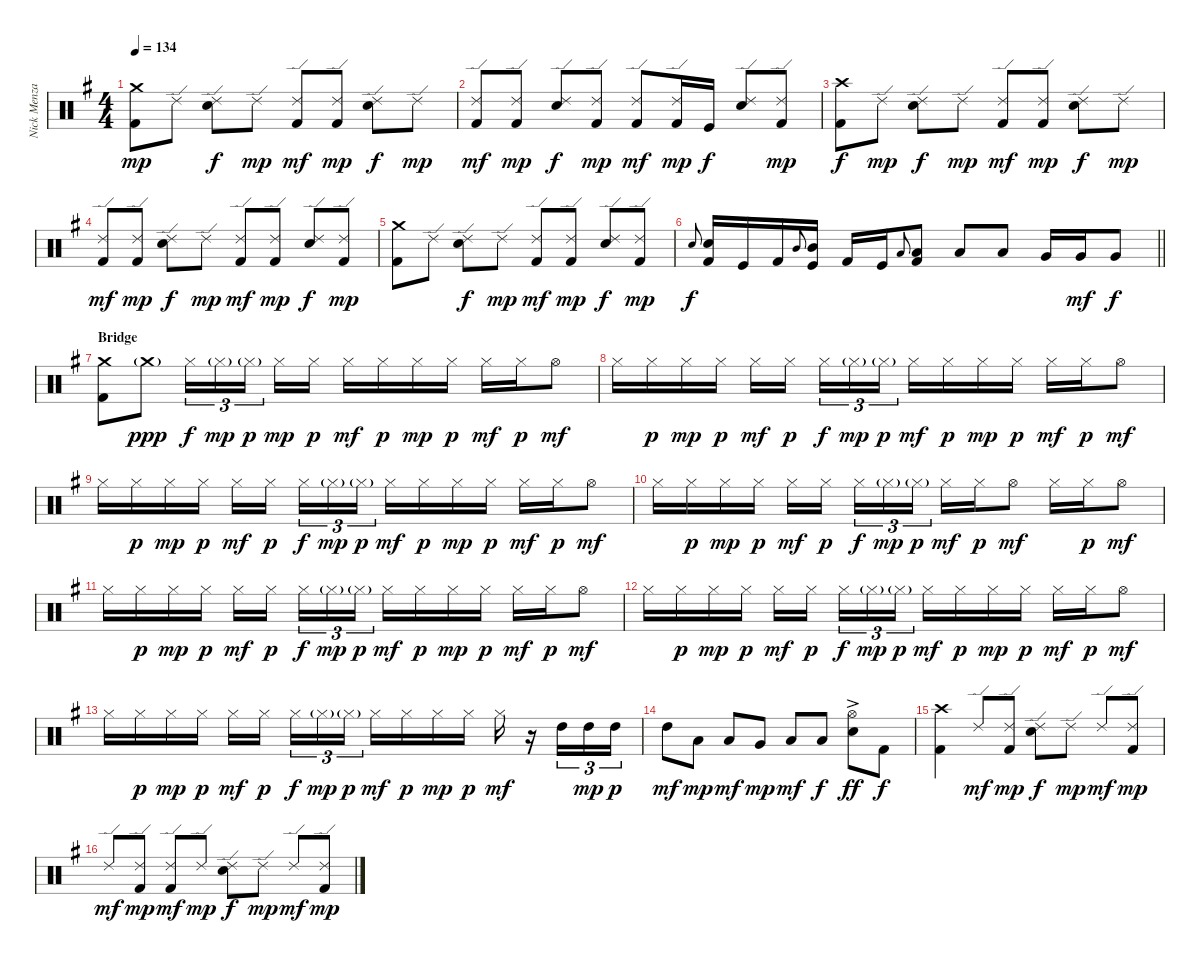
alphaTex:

\track ("Nick Menza" "Nick Menza") {instrument percussion}
\staff {score}
\articulation defaults
\ts (4 4)
\tempo 134
\clef neutral
\ks eminor
("Crash medium (hit)" "Kick (hit) 2").8{dy mp} "Ride (edge) 2".8 ("Ride (edge) 2" "Snare (hit) 2").8{dy f} "Ride (edge) 2".8{dy mp} ("Ride (edge) 2" "Kick (hit) 2").8{dy mf} ("Ride (edge) 2" "Kick (hit) 2").8{dy mp} ("Ride (edge) 2" "Snare (hit) 2").8{dy f} "Ride (edge) 2".8{dy mp} |
("Ride (edge) 2" "Kick (hit) 2").8{dy mf} ("Ride (edge) 2" "Kick (hit) 2").8{dy mp} ("Ride (edge) 2" "Snare (hit) 2").8{dy f} ("Ride (edge) 2" "Kick (hit) 2").8{dy mp} ("Ride (edge) 2" "Kick (hit) 2").8{dy mf} ("Ride (edge) 2" "Kick (hit) 2").16{dy mp} "Kick (hit)".16{dy f} ("Ride (edge) 2" "Snare (hit) 2").8 ("Ride (edge) 2" "Kick (hit) 2").8{dy mp} |
("Crash high (hit)" "Kick (hit) 2").8{dy f} "Ride (edge) 2".8{dy mp} ("Ride (edge) 2" "Snare (hit) 2").8{dy f} "Ride (edge) 2".8{dy mp} ("Ride (edge) 2" "Kick (hit) 2").8{dy mf} ("Ride (edge) 2" "Kick (hit) 2").8{dy mp} ("Ride (edge) 2" "Snare (hit) 2").8{dy f} "Ride (edge) 2".8{dy mp} |
("Ride (edge) 2" "Kick (hit) 2").8{dy mf} ("Ride (edge) 2" "Kick (hit) 2").8{dy mp} ("Ride (edge) 2" "Snare (hit) 2").8{dy f} "Ride (edge) 2".8{dy mp} ("Ride (edge) 2" "Kick (hit) 2").8{dy mf} ("Ride (edge) 2" "Kick (hit) 2").8{dy mp} ("Ride (edge) 2" "Snare (hit) 2").8{dy f} ("Ride (edge) 2" "Kick (hit) 2").8{dy mp} |
("Crash medium (hit)" "Kick (hit) 2").8 "Ride (edge) 2".8 ("Ride (edge) 2" "Snare (hit) 2").8{dy f} "Ride (edge) 2".8{dy mp} ("Ride (edge) 2" "Kick (hit) 2").8{dy mf} ("Ride (edge) 2" "Kick (hit) 2").8{dy mp} ("Ride (edge) 2" "Snare (hit) 2").8{dy f} ("Ride (edge) 2" "Kick (hit) 2").8{dy mp} |
\barLineRight lightlight "Snare (hit) 2".8{gr onbeat dy f}
("Snare (hit) 2" "Kick (hit) 2").16 "Kick (hit)".16 "Kick (hit) 2".16 "Mid Tom (hit)".8{gr onbeat} ("Mid Tom (hit)" "Kick (hit)").16 "Kick (hit) 2".16 "Kick (hit)".16 "Low Tom (hit)".8{gr onbeat} ("Low Tom (hit)" "Kick (hit) 2").8 "Low Tom (hit)".8 "Low Tom (hit)".8 "Very Low Tom (hit)".16 "Very Low Tom (hit)".16{dy mf} "Very Low Tom (hit)".8{dy f} |
\section ("" "Bridge")
("Crash medium (hit)" "Kick (hit) 2").8 "Crash medium (hit)"{g}.8{dy ppp} "Hi-Hat (closed)".16{tu (3 2) dy f} "Hi-Hat (closed)"{g}.16{tu (3 2) dy mp} "Hi-Hat (closed)"{g}.16{tu (3 2) dy p beam splitsecondary} "Hi-Hat (closed)".16{dy mp} "Hi-Hat (closed)".16{dy p} "Hi-Hat (closed)".16{dy mf} "Hi-Hat (closed)".16{dy p} "Hi-Hat (closed)".16{dy mp} "Hi-Hat (closed)".16{dy p} "Hi-Hat (closed)".16{dy mf} "Hi-Hat (closed)".16{dy p} "Hi-Hat (open)".8{dy mf} |
"Hi-Hat (closed)".16 "Hi-Hat (closed)".16{dy p} "Hi-Hat (closed)".16{dy mp} "Hi-Hat (closed)".16{dy p} "Hi-Hat (closed)".16{dy mf} "Hi-Hat (closed)".16{dy p beam splitsecondary} "Hi-Hat (closed)".16{tu (3 2) dy f} "Hi-Hat (closed)"{g}.16{tu (3 2) dy mp} "Hi-Hat (closed)"{g}.16{tu (3 2) dy p} "Hi-Hat (closed)".16{dy mf} "Hi-Hat (closed)".16{dy p} "Hi-Hat (closed)".16{dy mp} "Hi-Hat (closed)".16{dy p} "Hi-Hat (closed)".16{dy mf} "Hi-Hat (closed)".16{dy p} "Hi-Hat (open)".8{dy mf} |
"Hi-Hat (closed)".16 "Hi-Hat (closed)".16{dy p} "Hi-Hat (closed)".16{dy mp} "Hi-Hat (closed)".16{dy p} "Hi-Hat (closed)".16{dy mf} "Hi-Hat (closed)".16{dy p beam splitsecondary} "Hi-Hat (closed)".16{tu (3 2) dy f} "Hi-Hat (closed)"{g}.16{tu (3 2) dy mp} "Hi-Hat (closed)"{g}.16{tu (3 2) dy p} "Hi-Hat (closed)".16{dy mf} "Hi-Hat (closed)".16{dy p} "Hi-Hat (closed)".16{dy mp} "Hi-Hat (closed)".16{dy p} "Hi-Hat (closed)".16{dy mf} "Hi-Hat (closed)".16{dy p} "Hi-Hat (open)".8{dy mf} |
"Hi-Hat (closed)".16 "Hi-Hat (closed)".16{dy p} "Hi-Hat (closed)".16{dy mp} "Hi-Hat (closed)".16{dy p} "Hi-Hat (closed)".16{dy mf} "Hi-Hat (closed)".16{dy p beam splitsecondary} "Hi-Hat (closed)".16{tu (3 2) dy f} "Hi-Hat (closed)"{g}.16{tu (3 2) dy mp} "Hi-Hat (closed)"{g}.16{tu (3 2) dy p} "Hi-Hat (closed)".16{dy mf} "Hi-Hat (closed)".16{dy p} "Hi-Hat (open)".8{dy mf} "Hi-Hat (closed)".16 "Hi-Hat (closed)".16{dy p} "Hi-Hat (open)".8{dy mf} |
"Hi-Hat (closed)".16 "Hi-Hat (closed)".16{dy p} "Hi-Hat (closed)".16{dy mp} "Hi-Hat (closed)".16{dy p} "Hi-Hat (closed)".16{dy mf} "Hi-Hat (closed)".16{dy p beam splitsecondary} "Hi-Hat (closed)".16{tu (3 2) dy f} "Hi-Hat (closed)"{g}.16{tu (3 2) dy mp} "Hi-Hat (closed)"{g}.16{tu (3 2) dy p} "Hi-Hat (closed)".16{dy mf} "Hi-Hat (closed)".16{dy p} "Hi-Hat (closed)".16{dy mp} "Hi-Hat (closed)".16{dy p} "Hi-Hat (closed)".16{dy mf} "Hi-Hat (closed)".16{dy p} "Hi-Hat (open)".8{dy mf} |
"Hi-Hat (closed)".16 "Hi-Hat (closed)".16{dy p} "Hi-Hat (closed)".16{dy mp} "Hi-Hat (closed)".16{dy p} "Hi-Hat (closed)".16{dy mf} "Hi-Hat (closed)".16{dy p beam splitsecondary} "Hi-Hat (closed)".16{tu (3 2) dy f} "Hi-Hat (closed)"{g}.16{tu (3 2) dy mp} "Hi-Hat (closed)"{g}.16{tu (3 2) dy p} "Hi-Hat (closed)".16{dy mf} "Hi-Hat (closed)".16{dy p} "Hi-Hat (closed)".16{dy mp} "Hi-Hat (closed)".16{dy p} "Hi-Hat (closed)".16{dy mf} "Hi-Hat (closed)".16{dy p} "Hi-Hat (open)".8{dy mf} |
"Hi-Hat (closed)".16 "Hi-Hat (closed)".16{dy p} "Hi-Hat (closed)".16{dy mp} "Hi-Hat (closed)".16{dy p} "Hi-Hat (closed)".16{dy mf} "Hi-Hat (closed)".16{dy p beam splitsecondary} "Hi-Hat (closed)".16{tu (3 2) dy f} "Hi-Hat (closed)"{g}.16{tu (3 2) dy mp} "Hi-Hat (closed)"{g}.16{tu (3 2) dy p} "Hi-Hat (closed)".16{dy mf} "Hi-Hat (closed)".16{dy p} "Hi-Hat (closed)".16{dy mp} "Hi-Hat (closed)".16{dy p} "Hi-Hat (closed)".16{dy mf} r.16 "High Tom (hit)".16{tu (3 2)} "High Tom (hit)".16{tu (3 2) dy mp} "High Tom (hit)".16{tu (3 2) dy p} |
"High Tom (hit)".8{dy mf} "Low Tom (hit)".8{dy mp} "Low Tom (hit)".8{dy mf} "Very Low Tom (hit)".8{dy mp} "Low Floor Tom (hit)".8{dy mf} "Low Floor Tom (hit)".8{dy f} ("Hi-Hat (open)"{ac} "Snare (hit) 2"{ac}).8{dy ff} "Kick (hit) 2".8{dy f} |
("Crash high (hit)" "Kick (hit) 2").4 "Ride (edge) 2".8{dy mf} ("Ride (edge) 2" "Kick (hit) 2").8{dy mp} ("Ride (edge) 2" "Snare (hit) 2").8{dy f} "Ride (edge) 2".8{dy mp} "Ride (edge) 2".8{dy mf} ("Ride (edge) 2" "Kick (hit) 2").8{dy mp} |
"Ride (edge) 2".8{dy mf} ("Ride (edge) 2" "Kick (hit) 2").8{dy mp} ("Ride (edge) 2" "Kick (hit) 2").8{dy mf} "Ride (edge) 2".8{dy mp} ("Ride (edge) 2" "Snare (hit) 2").8{dy f} "Ride (edge) 2".8{dy mp} "Ride (edge) 2".8{dy mf} ("Ride (edge) 2" "Kick (hit) 2").8{dy mp}
